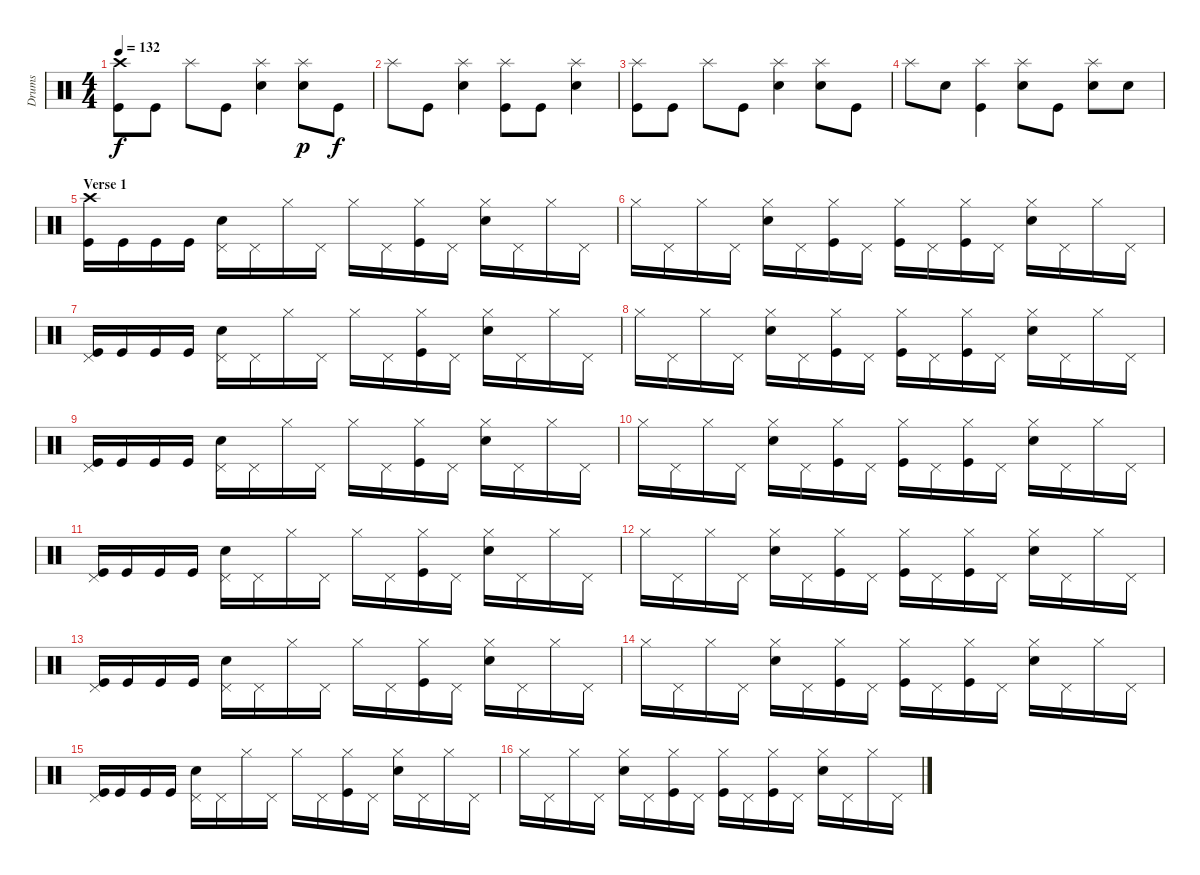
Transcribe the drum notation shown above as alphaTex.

\track ("Drums" "Drums") {instrument percussion}
\staff {score}
\articulation defaults
\ts (4 4)
\tempo 132
\clef neutral
\ks c
("Crash high (hit)" "Kick (hit)").8{dy f} "Kick (hit)".8 "Splash (hit)".8 "Kick (hit)".8 ("Snare (hit) 2" "Splash (hit)").4 ("Snare (hit) 2" "Splash (hit)").8{dy p} "Kick (hit)".8{dy f} |
"Splash (hit)".8 "Kick (hit)".8 ("Snare (hit) 2" "Splash (hit)").4 ("Splash (hit)" "Kick (hit)").8 "Kick (hit)".8 ("Snare (hit) 2" "Splash (hit)").4 |
("Splash (hit)" "Kick (hit)").8 "Kick (hit)".8 "Splash (hit)".8 "Kick (hit)".8 ("Snare (hit) 2" "Splash (hit)").4 ("Snare (hit) 2" "Splash (hit)").8 "Kick (hit)".8 |
"Splash (hit)".8 "Snare (hit) 2".8 ("Splash (hit)" "Kick (hit)").4 ("Snare (hit) 2" "Splash (hit)").8 "Kick (hit)".8 ("Snare (hit) 2" "Splash (hit)").8 "Snare (hit) 2".8 |
\section ("" "Verse 1")
("Crash high (hit)" "Kick (hit)").16 "Kick (hit)".16 "Kick (hit)".16 "Kick (hit)".16 ("Snare (hit) 2" "Pedal Hi-Hat (hit)").16 "Pedal Hi-Hat (hit)".16 "Hi-Hat (closed)".16 "Pedal Hi-Hat (hit)".16 "Hi-Hat (closed)".16 "Pedal Hi-Hat (hit)".16 ("Hi-Hat (closed)" "Kick (hit)").16 "Pedal Hi-Hat (hit)".16 ("Snare (hit) 2" "Hi-Hat (closed)").16 "Pedal Hi-Hat (hit)".16 "Hi-Hat (closed)".16 "Pedal Hi-Hat (hit)".16 |
"Hi-Hat (closed)".16 "Pedal Hi-Hat (hit)".16 "Hi-Hat (closed)".16 "Pedal Hi-Hat (hit)".16 ("Snare (hit) 2" "Hi-Hat (closed)").16 "Pedal Hi-Hat (hit)".16 ("Hi-Hat (closed)" "Kick (hit)").16 "Pedal Hi-Hat (hit)".16 ("Hi-Hat (closed)" "Kick (hit)").16 "Pedal Hi-Hat (hit)".16 ("Hi-Hat (closed)" "Kick (hit)").16 "Pedal Hi-Hat (hit)".16 ("Snare (hit) 2" "Hi-Hat (closed)").16 "Pedal Hi-Hat (hit)".16 "Hi-Hat (closed)".16 "Pedal Hi-Hat (hit)".16 |
("Pedal Hi-Hat (hit)" "Kick (hit)").16 "Kick (hit)".16 "Kick (hit)".16 "Kick (hit)".16 ("Snare (hit) 2" "Pedal Hi-Hat (hit)").16 "Pedal Hi-Hat (hit)".16 "Hi-Hat (closed)".16 "Pedal Hi-Hat (hit)".16 "Hi-Hat (closed)".16 "Pedal Hi-Hat (hit)".16 ("Hi-Hat (closed)" "Kick (hit)").16 "Pedal Hi-Hat (hit)".16 ("Snare (hit) 2" "Hi-Hat (closed)").16 "Pedal Hi-Hat (hit)".16 "Hi-Hat (closed)".16 "Pedal Hi-Hat (hit)".16 |
"Hi-Hat (closed)".16 "Pedal Hi-Hat (hit)".16 "Hi-Hat (closed)".16 "Pedal Hi-Hat (hit)".16 ("Snare (hit) 2" "Hi-Hat (closed)").16 "Pedal Hi-Hat (hit)".16 ("Hi-Hat (closed)" "Kick (hit)").16 "Pedal Hi-Hat (hit)".16 ("Hi-Hat (closed)" "Kick (hit)").16 "Pedal Hi-Hat (hit)".16 ("Hi-Hat (closed)" "Kick (hit)").16 "Pedal Hi-Hat (hit)".16 ("Snare (hit) 2" "Hi-Hat (closed)").16 "Pedal Hi-Hat (hit)".16 "Hi-Hat (closed)".16 "Pedal Hi-Hat (hit)".16 |
("Pedal Hi-Hat (hit)" "Kick (hit)").16 "Kick (hit)".16 "Kick (hit)".16 "Kick (hit)".16 ("Snare (hit) 2" "Pedal Hi-Hat (hit)").16 "Pedal Hi-Hat (hit)".16 "Hi-Hat (closed)".16 "Pedal Hi-Hat (hit)".16 "Hi-Hat (closed)".16 "Pedal Hi-Hat (hit)".16 ("Hi-Hat (closed)" "Kick (hit)").16 "Pedal Hi-Hat (hit)".16 ("Snare (hit) 2" "Hi-Hat (closed)").16 "Pedal Hi-Hat (hit)".16 "Hi-Hat (closed)".16 "Pedal Hi-Hat (hit)".16 |
"Hi-Hat (closed)".16 "Pedal Hi-Hat (hit)".16 "Hi-Hat (closed)".16 "Pedal Hi-Hat (hit)".16 ("Snare (hit) 2" "Hi-Hat (closed)").16 "Pedal Hi-Hat (hit)".16 ("Hi-Hat (closed)" "Kick (hit)").16 "Pedal Hi-Hat (hit)".16 ("Hi-Hat (closed)" "Kick (hit)").16 "Pedal Hi-Hat (hit)".16 ("Hi-Hat (closed)" "Kick (hit)").16 "Pedal Hi-Hat (hit)".16 ("Snare (hit) 2" "Hi-Hat (closed)").16 "Pedal Hi-Hat (hit)".16 "Hi-Hat (closed)".16 "Pedal Hi-Hat (hit)".16 |
("Pedal Hi-Hat (hit)" "Kick (hit)").16 "Kick (hit)".16 "Kick (hit)".16 "Kick (hit)".16 ("Snare (hit) 2" "Pedal Hi-Hat (hit)").16 "Pedal Hi-Hat (hit)".16 "Hi-Hat (closed)".16 "Pedal Hi-Hat (hit)".16 "Hi-Hat (closed)".16 "Pedal Hi-Hat (hit)".16 ("Hi-Hat (closed)" "Kick (hit)").16 "Pedal Hi-Hat (hit)".16 ("Snare (hit) 2" "Hi-Hat (closed)").16 "Pedal Hi-Hat (hit)".16 "Hi-Hat (closed)".16 "Pedal Hi-Hat (hit)".16 |
"Hi-Hat (closed)".16 "Pedal Hi-Hat (hit)".16 "Hi-Hat (closed)".16 "Pedal Hi-Hat (hit)".16 ("Snare (hit) 2" "Hi-Hat (closed)").16 "Pedal Hi-Hat (hit)".16 ("Hi-Hat (closed)" "Kick (hit)").16 "Pedal Hi-Hat (hit)".16 ("Hi-Hat (closed)" "Kick (hit)").16 "Pedal Hi-Hat (hit)".16 ("Hi-Hat (closed)" "Kick (hit)").16 "Pedal Hi-Hat (hit)".16 ("Snare (hit) 2" "Hi-Hat (closed)").16 "Pedal Hi-Hat (hit)".16 "Hi-Hat (closed)".16 "Pedal Hi-Hat (hit)".16 |
("Pedal Hi-Hat (hit)" "Kick (hit)").16 "Kick (hit)".16 "Kick (hit)".16 "Kick (hit)".16 ("Snare (hit) 2" "Pedal Hi-Hat (hit)").16 "Pedal Hi-Hat (hit)".16 "Hi-Hat (closed)".16 "Pedal Hi-Hat (hit)".16 "Hi-Hat (closed)".16 "Pedal Hi-Hat (hit)".16 ("Hi-Hat (closed)" "Kick (hit)").16 "Pedal Hi-Hat (hit)".16 ("Snare (hit) 2" "Hi-Hat (closed)").16 "Pedal Hi-Hat (hit)".16 "Hi-Hat (closed)".16 "Pedal Hi-Hat (hit)".16 |
"Hi-Hat (closed)".16 "Pedal Hi-Hat (hit)".16 "Hi-Hat (closed)".16 "Pedal Hi-Hat (hit)".16 ("Snare (hit) 2" "Hi-Hat (closed)").16 "Pedal Hi-Hat (hit)".16 ("Hi-Hat (closed)" "Kick (hit)").16 "Pedal Hi-Hat (hit)".16 ("Hi-Hat (closed)" "Kick (hit)").16 "Pedal Hi-Hat (hit)".16 ("Hi-Hat (closed)" "Kick (hit)").16 "Pedal Hi-Hat (hit)".16 ("Snare (hit) 2" "Hi-Hat (closed)").16 "Pedal Hi-Hat (hit)".16 "Hi-Hat (closed)".16 "Pedal Hi-Hat (hit)".16 |
("Pedal Hi-Hat (hit)" "Kick (hit)").16 "Kick (hit)".16 "Kick (hit)".16 "Kick (hit)".16 ("Snare (hit) 2" "Pedal Hi-Hat (hit)").16 "Pedal Hi-Hat (hit)".16 "Hi-Hat (closed)".16 "Pedal Hi-Hat (hit)".16 "Hi-Hat (closed)".16 "Pedal Hi-Hat (hit)".16 ("Hi-Hat (closed)" "Kick (hit)").16 "Pedal Hi-Hat (hit)".16 ("Snare (hit) 2" "Hi-Hat (closed)").16 "Pedal Hi-Hat (hit)".16 "Hi-Hat (closed)".16 "Pedal Hi-Hat (hit)".16 |
"Hi-Hat (closed)".16 "Pedal Hi-Hat (hit)".16 "Hi-Hat (closed)".16 "Pedal Hi-Hat (hit)".16 ("Snare (hit) 2" "Hi-Hat (closed)").16 "Pedal Hi-Hat (hit)".16 ("Hi-Hat (closed)" "Kick (hit)").16 "Pedal Hi-Hat (hit)".16 ("Hi-Hat (closed)" "Kick (hit)").16 "Pedal Hi-Hat (hit)".16 ("Hi-Hat (closed)" "Kick (hit)").16 "Pedal Hi-Hat (hit)".16 ("Snare (hit) 2" "Hi-Hat (closed)").16 "Pedal Hi-Hat (hit)".16 "Hi-Hat (closed)".16 "Pedal Hi-Hat (hit)".16
